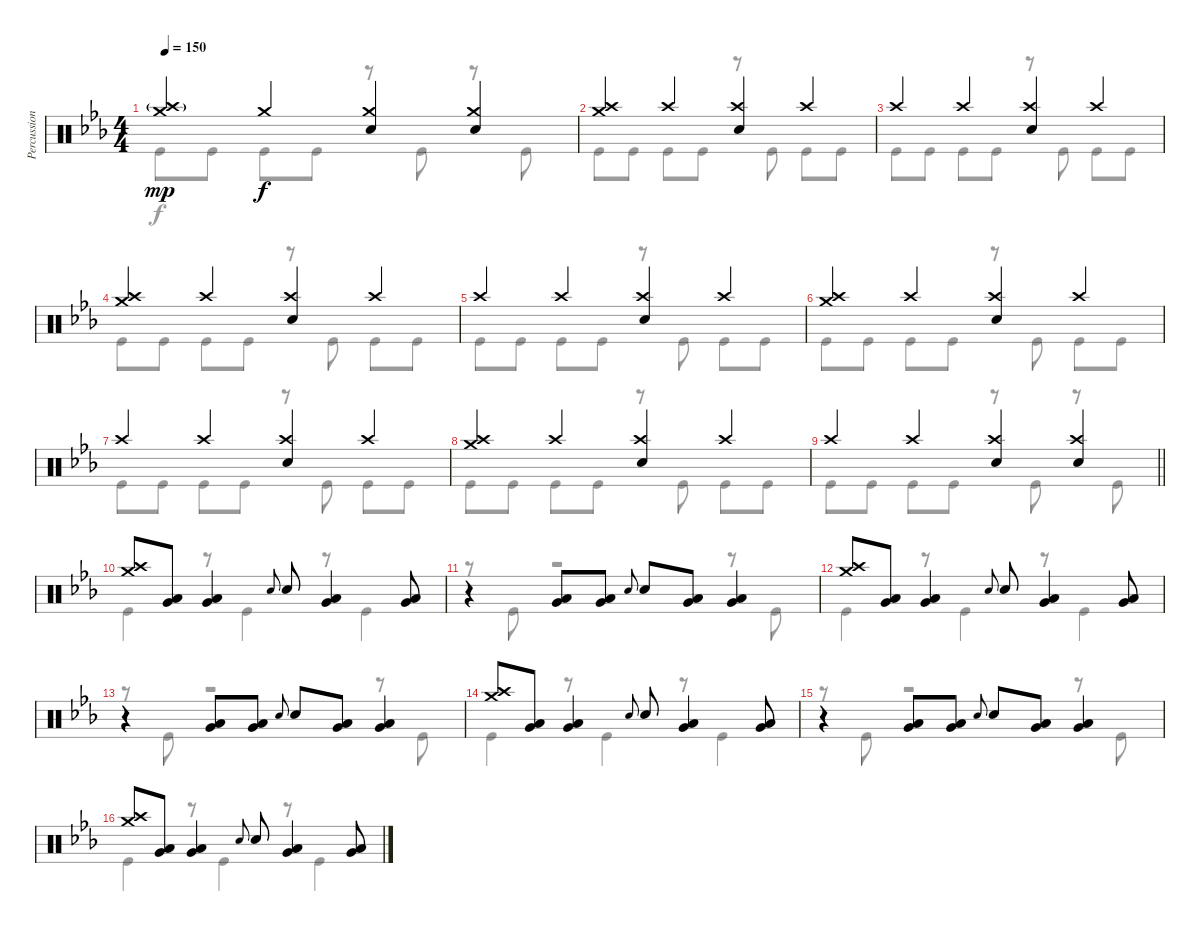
\track ("Percussion" "Percussion") {instrument percussion}
\staff {score}
\articulation defaults
\voice
\ts (4 4)
\tempo 150
\clef neutral
\ks cminor
("Crash medium (hit)" "Crash high (hit)"{g}).4{dy mp} "Crash medium (hit)".4{dy f} ("Crash medium (hit)" "Electric Snare (hit)").4 ("Crash medium (hit)" "Electric Snare (hit)").4 |
("Crash medium (hit)" "Crash high (hit)").4 "Crash high (hit)".4 ("Crash high (hit)" "Electric Snare (hit)").4 "Crash high (hit)".4 |
"Crash high (hit)".4 "Crash high (hit)".4 ("Crash high (hit)" "Electric Snare (hit)").4 "Crash high (hit)".4 |
("Crash medium (hit)" "Crash high (hit)").4 "Crash high (hit)".4 ("Crash high (hit)" "Electric Snare (hit)").4 "Crash high (hit)".4 |
"Crash high (hit)".4 "Crash high (hit)".4 ("Crash high (hit)" "Electric Snare (hit)").4 "Crash high (hit)".4 |
("Crash medium (hit)" "Crash high (hit)").4 "Crash high (hit)".4 ("Crash high (hit)" "Electric Snare (hit)").4 "Crash high (hit)".4 |
"Crash high (hit)".4 "Crash high (hit)".4 ("Crash high (hit)" "Electric Snare (hit)").4 "Crash high (hit)".4 |
("Crash medium (hit)" "Crash high (hit)").4 "Crash high (hit)".4 ("Crash high (hit)" "Electric Snare (hit)").4 "Crash high (hit)".4 |
\barLineRight lightlight "Crash high (hit)".4 "Crash high (hit)".4
("Crash high (hit)" "Electric Snare (hit)").4 ("Crash high (hit)" "Electric Snare (hit)").4 |
\section ("" "")
("Crash medium (hit)" "Crash high (hit)").8 ("Low Tom (hit)" "Very Low Tom (hit)").8 ("Low Tom (hit)" "Very Low Tom (hit)").4 "Electric Snare (hit)".8{gr onbeat} "Electric Snare (hit)".8 ("Low Tom (hit)" "Very Low Tom (hit)").4 ("Low Tom (hit)" "Very Low Tom (hit)").8 |
r.4 ("Low Tom (hit)" "Very Low Tom (hit)").8 ("Low Tom (hit)" "Very Low Tom (hit)").8 "Electric Snare (hit)".8{gr onbeat} "Electric Snare (hit)".8 ("Low Tom (hit)" "Very Low Tom (hit)").8 ("Low Tom (hit)" "Very Low Tom (hit)").4 |
("Crash medium (hit)" "Crash high (hit)").8 ("Low Tom (hit)" "Very Low Tom (hit)").8 ("Low Tom (hit)" "Very Low Tom (hit)").4 "Electric Snare (hit)".8{gr onbeat} "Electric Snare (hit)".8 ("Low Tom (hit)" "Very Low Tom (hit)").4 ("Low Tom (hit)" "Very Low Tom (hit)").8 |
r.4 ("Low Tom (hit)" "Very Low Tom (hit)").8 ("Low Tom (hit)" "Very Low Tom (hit)").8 "Electric Snare (hit)".8{gr onbeat} "Electric Snare (hit)".8 ("Low Tom (hit)" "Very Low Tom (hit)").8 ("Low Tom (hit)" "Very Low Tom (hit)").4 |
("Crash medium (hit)" "Crash high (hit)").8 ("Low Tom (hit)" "Very Low Tom (hit)").8 ("Low Tom (hit)" "Very Low Tom (hit)").4 "Electric Snare (hit)".8{gr onbeat} "Electric Snare (hit)".8 ("Low Tom (hit)" "Very Low Tom (hit)").4 ("Low Tom (hit)" "Very Low Tom (hit)").8 |
r.4 ("Low Tom (hit)" "Very Low Tom (hit)").8 ("Low Tom (hit)" "Very Low Tom (hit)").8 "Electric Snare (hit)".8{gr onbeat} "Electric Snare (hit)".8 ("Low Tom (hit)" "Very Low Tom (hit)").8 ("Low Tom (hit)" "Very Low Tom (hit)").4 |
("Crash medium (hit)" "Crash high (hit)").8 ("Low Tom (hit)" "Very Low Tom (hit)").8 ("Low Tom (hit)" "Very Low Tom (hit)").4 "Electric Snare (hit)".8{gr onbeat} "Electric Snare (hit)".8 ("Low Tom (hit)" "Very Low Tom (hit)").4 ("Low Tom (hit)" "Very Low Tom (hit)").8
\voice
\clef neutral
\ottava regular
\simile none
\ks cminor "Kick (hit)".8{dy f} "Kick (hit)".8 "Kick (hit)".8 "Kick (hit)".8
r.8 "Kick (hit)".8 r.8 "Kick (hit)".8 |
"Kick (hit)".8 "Kick (hit)".8 "Kick (hit)".8 "Kick (hit)".8 r.8 "Kick (hit)".8 "Kick (hit)".8 "Kick (hit)".8 |
"Kick (hit)".8 "Kick (hit)".8 "Kick (hit)".8 "Kick (hit)".8 r.8 "Kick (hit)".8 "Kick (hit)".8 "Kick (hit)".8 |
"Kick (hit)".8 "Kick (hit)".8 "Kick (hit)".8 "Kick (hit)".8 r.8 "Kick (hit)".8 "Kick (hit)".8 "Kick (hit)".8 |
"Kick (hit)".8 "Kick (hit)".8 "Kick (hit)".8 "Kick (hit)".8 r.8 "Kick (hit)".8 "Kick (hit)".8 "Kick (hit)".8 |
"Kick (hit)".8 "Kick (hit)".8 "Kick (hit)".8 "Kick (hit)".8 r.8 "Kick (hit)".8 "Kick (hit)".8 "Kick (hit)".8 |
"Kick (hit)".8 "Kick (hit)".8 "Kick (hit)".8 "Kick (hit)".8 r.8 "Kick (hit)".8 "Kick (hit)".8 "Kick (hit)".8 |
"Kick (hit)".8 "Kick (hit)".8 "Kick (hit)".8 "Kick (hit)".8 r.8 "Kick (hit)".8 "Kick (hit)".8 "Kick (hit)".8 |
\barLineRight lightlight "Kick (hit)".8 "Kick (hit)".8 "Kick (hit)".8 "Kick (hit)".8
r.8 "Kick (hit)".8 r.8 "Kick (hit)".8 |
"Kick (hit)".4 r.8 "Kick (hit)".4 r.8 "Kick (hit)".4 |
r.8 "Kick (hit)".8 r.2 r.8 "Kick (hit)".8 |
"Kick (hit)".4 r.8 "Kick (hit)".4 r.8 "Kick (hit)".4 |
r.8 "Kick (hit)".8 r.2 r.8 "Kick (hit)".8 |
"Kick (hit)".4 r.8 "Kick (hit)".4 r.8 "Kick (hit)".4 |
r.8 "Kick (hit)".8 r.2 r.8 "Kick (hit)".8 |
"Kick (hit)".4 r.8 "Kick (hit)".4 r.8 "Kick (hit)".4
